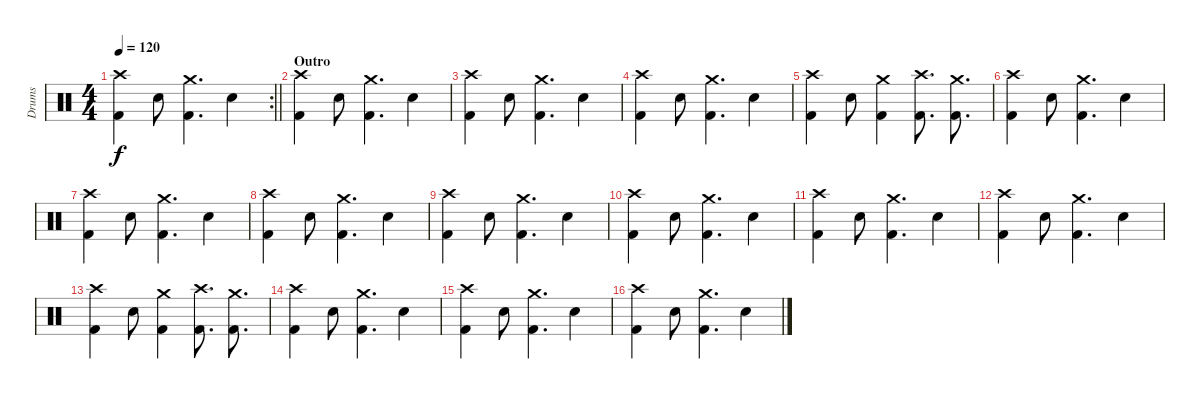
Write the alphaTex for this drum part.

\track ("Drums" "Drums") {instrument percussion}
\staff {score}
\articulation defaults
\rc 2
\ts (4 4)
\tempo 120
\clef neutral
\barLineRight lightlight
\ks c
("Kick (hit) 2" "Crash high (hit)").4{dy f} "Snare (hit) 2".8 ("Kick (hit) 2" "Crash medium (hit)").4{d} "Snare (hit) 2".4 |
\section ("" "Outro")
("Kick (hit) 2" "Crash high (hit)").4 "Snare (hit) 2".8 ("Kick (hit) 2" "Crash medium (hit)").4{d} "Snare (hit) 2".4 |
("Kick (hit) 2" "Crash high (hit)").4 "Snare (hit) 2".8 ("Kick (hit) 2" "Crash medium (hit)").4{d} "Snare (hit) 2".4 |
("Kick (hit) 2" "Crash high (hit)").4 "Snare (hit) 2".8 ("Kick (hit) 2" "Crash medium (hit)").4{d} "Snare (hit) 2".4 |
("Kick (hit) 2" "Crash high (hit)").4 "Snare (hit) 2".8 ("Kick (hit) 2" "Crash medium (hit)").4 ("Kick (hit) 2" "Crash high (hit)").8{d} ("Kick (hit) 2" "Crash medium (hit)").8{d} |
("Kick (hit) 2" "Crash high (hit)").4 "Snare (hit) 2".8 ("Kick (hit) 2" "Crash medium (hit)").4{d} "Snare (hit) 2".4 |
("Kick (hit) 2" "Crash high (hit)").4 "Snare (hit) 2".8 ("Kick (hit) 2" "Crash medium (hit)").4{d} "Snare (hit) 2".4 |
("Kick (hit) 2" "Crash high (hit)").4 "Snare (hit) 2".8 ("Kick (hit) 2" "Crash medium (hit)").4{d} "Snare (hit) 2".4 |
("Kick (hit) 2" "Crash high (hit)").4 "Snare (hit) 2".8 ("Kick (hit) 2" "Crash medium (hit)").4{d} "Snare (hit) 2".4 |
("Kick (hit) 2" "Crash high (hit)").4 "Snare (hit) 2".8 ("Kick (hit) 2" "Crash medium (hit)").4{d} "Snare (hit) 2".4 |
("Kick (hit) 2" "Crash high (hit)").4 "Snare (hit) 2".8 ("Kick (hit) 2" "Crash medium (hit)").4{d} "Snare (hit) 2".4 |
("Kick (hit) 2" "Crash high (hit)").4 "Snare (hit) 2".8 ("Kick (hit) 2" "Crash medium (hit)").4{d} "Snare (hit) 2".4 |
("Kick (hit) 2" "Crash high (hit)").4 "Snare (hit) 2".8 ("Kick (hit) 2" "Crash medium (hit)").4 ("Kick (hit) 2" "Crash high (hit)").8{d} ("Kick (hit) 2" "Crash medium (hit)").8{d} |
("Kick (hit) 2" "Crash high (hit)").4 "Snare (hit) 2".8 ("Kick (hit) 2" "Crash medium (hit)").4{d} "Snare (hit) 2".4 |
("Kick (hit) 2" "Crash high (hit)").4 "Snare (hit) 2".8 ("Kick (hit) 2" "Crash medium (hit)").4{d} "Snare (hit) 2".4 |
("Kick (hit) 2" "Crash high (hit)").4 "Snare (hit) 2".8 ("Kick (hit) 2" "Crash medium (hit)").4{d} "Snare (hit) 2".4
